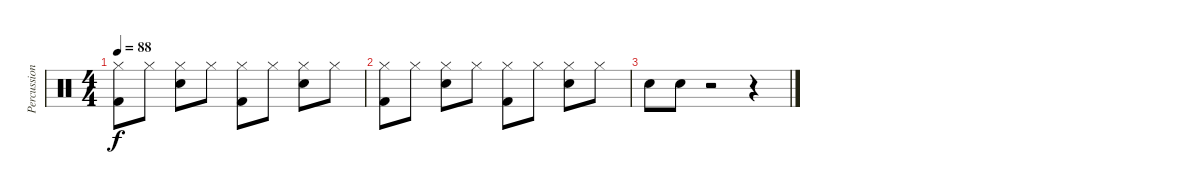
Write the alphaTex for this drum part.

\track ("Percussions" "Percussion") {instrument percussion}
\staff {score}
\articulation defaults
\ts (4 4)
\tempo 88
\clef neutral
\ks c
("Hi-Hat (closed)" "Kick (hit) 2").8{dy f} "Hi-Hat (closed)".8 ("Hi-Hat (closed)" "Snare (hit) 2").8 "Hi-Hat (closed)".8 ("Hi-Hat (closed)" "Kick (hit) 2").8 "Hi-Hat (closed)".8 ("Hi-Hat (closed)" "Snare (hit) 2").8 "Hi-Hat (closed)".8 |
("Hi-Hat (closed)" "Kick (hit) 2").8 "Hi-Hat (closed)".8 ("Hi-Hat (closed)" "Snare (hit) 2").8 "Hi-Hat (closed)".8 ("Hi-Hat (closed)" "Kick (hit) 2").8 "Hi-Hat (closed)".8 ("Hi-Hat (closed)" "Snare (hit) 2").8 "Hi-Hat (closed)".8 |
"Snare (hit) 2".8 "Snare (hit) 2".8 r.2 r.4
